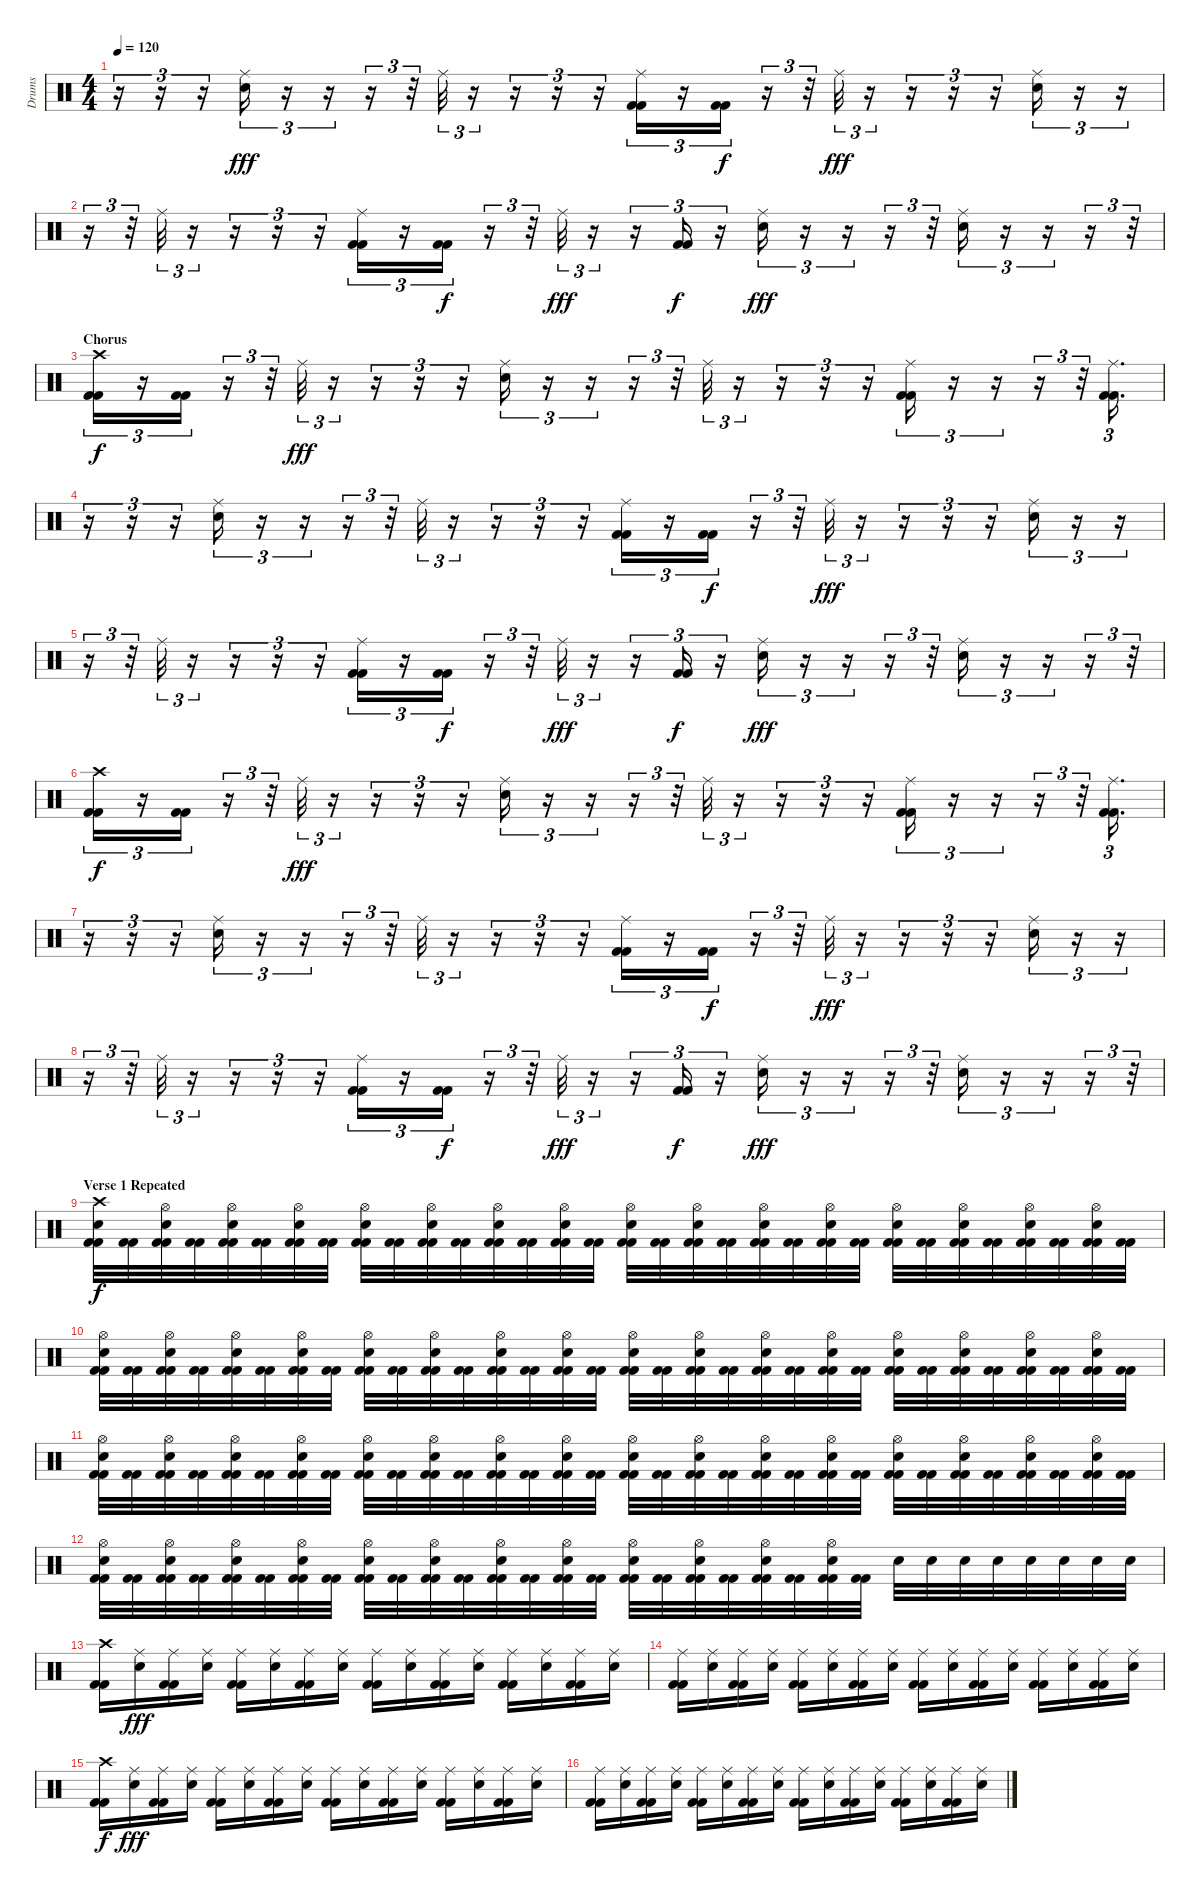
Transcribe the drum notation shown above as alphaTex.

\track ("Drums" "Drums") {instrument percussion}
\staff {score}
\articulation defaults
\ts (4 4)
\tempo 120
\clef neutral
\ks c
r.16{tu (3 2) dy fff} r.16{tu (3 2)} r.16{tu (3 2)} ("Electric Snare (hit)" "Ride (middle)").16{tu (3 2)} r.16{tu (3 2)} r.16{tu (3 2)} r.16{tu (3 2)} r.32{tu (3 2)} "Ride (middle)".32{tu (3 2)} r.16{tu (3 2)} r.16{tu (3 2)} r.16{tu (3 2)} r.16{tu (3 2)} ("Kick (hit) 2" "Kick (hit) 2" "Ride (middle)").16{tu (3 2)} r.16{tu (3 2)} ("Kick (hit) 2" "Kick (hit) 2").16{tu (3 2) dy f} r.16{tu (3 2)} r.32{tu (3 2)} "Ride (middle)".32{tu (3 2) dy fff} r.16{tu (3 2)} r.16{tu (3 2)} r.16{tu (3 2)} r.16{tu (3 2)} ("Electric Snare (hit)" "Ride (middle)").16{tu (3 2)} r.16{tu (3 2)} r.16{tu (3 2)} |
r.16{tu (3 2)} r.32{tu (3 2)} "Ride (middle)".32{tu (3 2)} r.16{tu (3 2)} r.16{tu (3 2)} r.16{tu (3 2)} r.16{tu (3 2)} ("Kick (hit) 2" "Kick (hit) 2" "Ride (middle)").16{tu (3 2)} r.16{tu (3 2)} ("Kick (hit) 2" "Kick (hit) 2").16{tu (3 2) dy f} r.16{tu (3 2)} r.32{tu (3 2)} "Ride (middle)".32{tu (3 2) dy fff} r.16{tu (3 2)} r.16{tu (3 2)} ("Kick (hit) 2" "Kick (hit) 2").16{tu (3 2) dy f} r.16{tu (3 2)} ("Electric Snare (hit)" "Ride (middle)").16{tu (3 2) dy fff} r.16{tu (3 2)} r.16{tu (3 2)} r.16{tu (3 2)} r.32{tu (3 2)} ("Electric Snare (hit)" "Ride (middle)").16{tu (3 2)} r.16{tu (3 2)} r.16{tu (3 2)} r.16{tu (3 2)} r.32{tu (3 2)} |
\section ("" "Chorus")
("Kick (hit) 2" "Kick (hit) 2" "Crash high (hit)").16{tu (3 2) dy f} r.16{tu (3 2)} ("Kick (hit) 2" "Kick (hit) 2").16{tu (3 2)} r.16{tu (3 2)} r.32{tu (3 2)} "Ride (middle)".32{tu (3 2) dy fff} r.16{tu (3 2)} r.16{tu (3 2)} r.16{tu (3 2)} r.16{tu (3 2)} ("Electric Snare (hit)" "Ride (middle)").16{tu (3 2)} r.16{tu (3 2)} r.16{tu (3 2)} r.16{tu (3 2)} r.32{tu (3 2)} "Ride (middle)".32{tu (3 2)} r.16{tu (3 2)} r.16{tu (3 2)} r.16{tu (3 2)} r.16{tu (3 2)} ("Kick (hit) 2" "Kick (hit) 2" "Ride (middle)").16{tu (3 2)} r.16{tu (3 2)} r.16{tu (3 2)} r.16{tu (3 2)} r.32{tu (3 2)} ("Kick (hit) 2" "Kick (hit) 2" "Ride (middle)").16{d tu (3 2)} |
r.16{tu (3 2)} r.16{tu (3 2)} r.16{tu (3 2)} ("Electric Snare (hit)" "Ride (middle)").16{tu (3 2)} r.16{tu (3 2)} r.16{tu (3 2)} r.16{tu (3 2)} r.32{tu (3 2)} "Ride (middle)".32{tu (3 2)} r.16{tu (3 2)} r.16{tu (3 2)} r.16{tu (3 2)} r.16{tu (3 2)} ("Kick (hit) 2" "Kick (hit) 2" "Ride (middle)").16{tu (3 2)} r.16{tu (3 2)} ("Kick (hit) 2" "Kick (hit) 2").16{tu (3 2) dy f} r.16{tu (3 2)} r.32{tu (3 2)} "Ride (middle)".32{tu (3 2) dy fff} r.16{tu (3 2)} r.16{tu (3 2)} r.16{tu (3 2)} r.16{tu (3 2)} ("Electric Snare (hit)" "Ride (middle)").16{tu (3 2)} r.16{tu (3 2)} r.16{tu (3 2)} |
r.16{tu (3 2)} r.32{tu (3 2)} "Ride (middle)".32{tu (3 2)} r.16{tu (3 2)} r.16{tu (3 2)} r.16{tu (3 2)} r.16{tu (3 2)} ("Kick (hit) 2" "Kick (hit) 2" "Ride (middle)").16{tu (3 2)} r.16{tu (3 2)} ("Kick (hit) 2" "Kick (hit) 2").16{tu (3 2) dy f} r.16{tu (3 2)} r.32{tu (3 2)} "Ride (middle)".32{tu (3 2) dy fff} r.16{tu (3 2)} r.16{tu (3 2)} ("Kick (hit) 2" "Kick (hit) 2").16{tu (3 2) dy f} r.16{tu (3 2)} ("Electric Snare (hit)" "Ride (middle)").16{tu (3 2) dy fff} r.16{tu (3 2)} r.16{tu (3 2)} r.16{tu (3 2)} r.32{tu (3 2)} ("Electric Snare (hit)" "Ride (middle)").16{tu (3 2)} r.16{tu (3 2)} r.16{tu (3 2)} r.16{tu (3 2)} r.32{tu (3 2)} |
("Kick (hit) 2" "Kick (hit) 2" "Crash high (hit)").16{tu (3 2) dy f} r.16{tu (3 2)} ("Kick (hit) 2" "Kick (hit) 2").16{tu (3 2)} r.16{tu (3 2)} r.32{tu (3 2)} "Ride (middle)".32{tu (3 2) dy fff} r.16{tu (3 2)} r.16{tu (3 2)} r.16{tu (3 2)} r.16{tu (3 2)} ("Electric Snare (hit)" "Ride (middle)").16{tu (3 2)} r.16{tu (3 2)} r.16{tu (3 2)} r.16{tu (3 2)} r.32{tu (3 2)} "Ride (middle)".32{tu (3 2)} r.16{tu (3 2)} r.16{tu (3 2)} r.16{tu (3 2)} r.16{tu (3 2)} ("Kick (hit) 2" "Kick (hit) 2" "Ride (middle)").16{tu (3 2)} r.16{tu (3 2)} r.16{tu (3 2)} r.16{tu (3 2)} r.32{tu (3 2)} ("Kick (hit) 2" "Kick (hit) 2" "Ride (middle)").16{d tu (3 2)} |
r.16{tu (3 2)} r.16{tu (3 2)} r.16{tu (3 2)} ("Electric Snare (hit)" "Ride (middle)").16{tu (3 2)} r.16{tu (3 2)} r.16{tu (3 2)} r.16{tu (3 2)} r.32{tu (3 2)} "Ride (middle)".32{tu (3 2)} r.16{tu (3 2)} r.16{tu (3 2)} r.16{tu (3 2)} r.16{tu (3 2)} ("Kick (hit) 2" "Kick (hit) 2" "Ride (middle)").16{tu (3 2)} r.16{tu (3 2)} ("Kick (hit) 2" "Kick (hit) 2").16{tu (3 2) dy f} r.16{tu (3 2)} r.32{tu (3 2)} "Ride (middle)".32{tu (3 2) dy fff} r.16{tu (3 2)} r.16{tu (3 2)} r.16{tu (3 2)} r.16{tu (3 2)} ("Electric Snare (hit)" "Ride (middle)").16{tu (3 2)} r.16{tu (3 2)} r.16{tu (3 2)} |
r.16{tu (3 2)} r.32{tu (3 2)} "Ride (middle)".32{tu (3 2)} r.16{tu (3 2)} r.16{tu (3 2)} r.16{tu (3 2)} r.16{tu (3 2)} ("Kick (hit) 2" "Kick (hit) 2" "Ride (middle)").16{tu (3 2)} r.16{tu (3 2)} ("Kick (hit) 2" "Kick (hit) 2").16{tu (3 2) dy f} r.16{tu (3 2)} r.32{tu (3 2)} "Ride (middle)".32{tu (3 2) dy fff} r.16{tu (3 2)} r.16{tu (3 2)} ("Kick (hit) 2" "Kick (hit) 2").16{tu (3 2) dy f} r.16{tu (3 2)} ("Electric Snare (hit)" "Ride (middle)").16{tu (3 2) dy fff} r.16{tu (3 2)} r.16{tu (3 2)} r.16{tu (3 2)} r.32{tu (3 2)} ("Electric Snare (hit)" "Ride (middle)").16{tu (3 2)} r.16{tu (3 2)} r.16{tu (3 2)} r.16{tu (3 2)} r.32{tu (3 2)} |
\section ("" "Verse 1 Repeated")
("Kick (hit) 2" "Kick (hit) 2" "Electric Snare (hit)" "Crash high (hit)").32{dy f} ("Kick (hit) 2" "Kick (hit) 2").32 ("Kick (hit) 2" "Kick (hit) 2" "Electric Snare (hit)" "Hi-Hat (open)").32 ("Kick (hit) 2" "Kick (hit) 2").32 ("Kick (hit) 2" "Kick (hit) 2" "Electric Snare (hit)" "Hi-Hat (open)").32 ("Kick (hit) 2" "Kick (hit) 2").32 ("Kick (hit) 2" "Kick (hit) 2" "Electric Snare (hit)" "Hi-Hat (open)").32 ("Kick (hit) 2" "Kick (hit) 2").32 ("Kick (hit) 2" "Kick (hit) 2" "Electric Snare (hit)" "Hi-Hat (open)").32 ("Kick (hit) 2" "Kick (hit) 2").32 ("Kick (hit) 2" "Kick (hit) 2" "Electric Snare (hit)" "Hi-Hat (open)").32 ("Kick (hit) 2" "Kick (hit) 2").32 ("Kick (hit) 2" "Kick (hit) 2" "Electric Snare (hit)" "Hi-Hat (open)").32 ("Kick (hit) 2" "Kick (hit) 2").32 ("Kick (hit) 2" "Kick (hit) 2" "Electric Snare (hit)" "Hi-Hat (open)").32 ("Kick (hit) 2" "Kick (hit) 2").32 ("Kick (hit) 2" "Kick (hit) 2" "Electric Snare (hit)" "Hi-Hat (open)").32 ("Kick (hit) 2" "Kick (hit) 2").32 ("Kick (hit) 2" "Kick (hit) 2" "Electric Snare (hit)" "Hi-Hat (open)").32 ("Kick (hit) 2" "Kick (hit) 2").32 ("Kick (hit) 2" "Kick (hit) 2" "Electric Snare (hit)" "Hi-Hat (open)").32 ("Kick (hit) 2" "Kick (hit) 2").32 ("Kick (hit) 2" "Kick (hit) 2" "Electric Snare (hit)" "Hi-Hat (open)").32 ("Kick (hit) 2" "Kick (hit) 2").32 ("Kick (hit) 2" "Kick (hit) 2" "Electric Snare (hit)" "Hi-Hat (open)").32 ("Kick (hit) 2" "Kick (hit) 2").32 ("Kick (hit) 2" "Kick (hit) 2" "Electric Snare (hit)" "Hi-Hat (open)").32 ("Kick (hit) 2" "Kick (hit) 2").32 ("Kick (hit) 2" "Kick (hit) 2" "Electric Snare (hit)" "Hi-Hat (open)").32 ("Kick (hit) 2" "Kick (hit) 2").32 ("Kick (hit) 2" "Kick (hit) 2" "Electric Snare (hit)" "Hi-Hat (open)").32 ("Kick (hit) 2" "Kick (hit) 2").32 |
("Kick (hit) 2" "Kick (hit) 2" "Electric Snare (hit)" "Hi-Hat (open)").32 ("Kick (hit) 2" "Kick (hit) 2").32 ("Kick (hit) 2" "Kick (hit) 2" "Electric Snare (hit)" "Hi-Hat (open)").32 ("Kick (hit) 2" "Kick (hit) 2").32 ("Kick (hit) 2" "Kick (hit) 2" "Electric Snare (hit)" "Hi-Hat (open)").32 ("Kick (hit) 2" "Kick (hit) 2").32 ("Kick (hit) 2" "Kick (hit) 2" "Electric Snare (hit)" "Hi-Hat (open)").32 ("Kick (hit) 2" "Kick (hit) 2").32 ("Kick (hit) 2" "Kick (hit) 2" "Electric Snare (hit)" "Hi-Hat (open)").32 ("Kick (hit) 2" "Kick (hit) 2").32 ("Kick (hit) 2" "Kick (hit) 2" "Electric Snare (hit)" "Hi-Hat (open)").32 ("Kick (hit) 2" "Kick (hit) 2").32 ("Kick (hit) 2" "Kick (hit) 2" "Electric Snare (hit)" "Hi-Hat (open)").32 ("Kick (hit) 2" "Kick (hit) 2").32 ("Kick (hit) 2" "Kick (hit) 2" "Electric Snare (hit)" "Hi-Hat (open)").32 ("Kick (hit) 2" "Kick (hit) 2").32 ("Kick (hit) 2" "Kick (hit) 2" "Electric Snare (hit)" "Hi-Hat (open)").32 ("Kick (hit) 2" "Kick (hit) 2").32 ("Kick (hit) 2" "Kick (hit) 2" "Electric Snare (hit)" "Hi-Hat (open)").32 ("Kick (hit) 2" "Kick (hit) 2").32 ("Kick (hit) 2" "Kick (hit) 2" "Electric Snare (hit)" "Hi-Hat (open)").32 ("Kick (hit) 2" "Kick (hit) 2").32 ("Kick (hit) 2" "Kick (hit) 2" "Electric Snare (hit)" "Hi-Hat (open)").32 ("Kick (hit) 2" "Kick (hit) 2").32 ("Kick (hit) 2" "Kick (hit) 2" "Electric Snare (hit)" "Hi-Hat (open)").32 ("Kick (hit) 2" "Kick (hit) 2").32 ("Kick (hit) 2" "Kick (hit) 2" "Electric Snare (hit)" "Hi-Hat (open)").32 ("Kick (hit) 2" "Kick (hit) 2").32 ("Kick (hit) 2" "Kick (hit) 2" "Electric Snare (hit)" "Hi-Hat (open)").32 ("Kick (hit) 2" "Kick (hit) 2").32 ("Kick (hit) 2" "Kick (hit) 2" "Electric Snare (hit)" "Hi-Hat (open)").32 ("Kick (hit) 2" "Kick (hit) 2").32 |
("Kick (hit) 2" "Kick (hit) 2" "Electric Snare (hit)" "Hi-Hat (open)").32 ("Kick (hit) 2" "Kick (hit) 2").32 ("Kick (hit) 2" "Kick (hit) 2" "Electric Snare (hit)" "Hi-Hat (open)").32 ("Kick (hit) 2" "Kick (hit) 2").32 ("Kick (hit) 2" "Kick (hit) 2" "Electric Snare (hit)" "Hi-Hat (open)").32 ("Kick (hit) 2" "Kick (hit) 2").32 ("Kick (hit) 2" "Kick (hit) 2" "Electric Snare (hit)" "Hi-Hat (open)").32 ("Kick (hit) 2" "Kick (hit) 2").32 ("Kick (hit) 2" "Kick (hit) 2" "Electric Snare (hit)" "Hi-Hat (open)").32 ("Kick (hit) 2" "Kick (hit) 2").32 ("Kick (hit) 2" "Kick (hit) 2" "Electric Snare (hit)" "Hi-Hat (open)").32 ("Kick (hit) 2" "Kick (hit) 2").32 ("Kick (hit) 2" "Kick (hit) 2" "Electric Snare (hit)" "Hi-Hat (open)").32 ("Kick (hit) 2" "Kick (hit) 2").32 ("Kick (hit) 2" "Kick (hit) 2" "Electric Snare (hit)" "Hi-Hat (open)").32 ("Kick (hit) 2" "Kick (hit) 2").32 ("Kick (hit) 2" "Kick (hit) 2" "Electric Snare (hit)" "Hi-Hat (open)").32 ("Kick (hit) 2" "Kick (hit) 2").32 ("Kick (hit) 2" "Kick (hit) 2" "Electric Snare (hit)" "Hi-Hat (open)").32 ("Kick (hit) 2" "Kick (hit) 2").32 ("Kick (hit) 2" "Kick (hit) 2" "Electric Snare (hit)" "Hi-Hat (open)").32 ("Kick (hit) 2" "Kick (hit) 2").32 ("Kick (hit) 2" "Kick (hit) 2" "Electric Snare (hit)" "Hi-Hat (open)").32 ("Kick (hit) 2" "Kick (hit) 2").32 ("Kick (hit) 2" "Kick (hit) 2" "Electric Snare (hit)" "Hi-Hat (open)").32 ("Kick (hit) 2" "Kick (hit) 2").32 ("Kick (hit) 2" "Kick (hit) 2" "Electric Snare (hit)" "Hi-Hat (open)").32 ("Kick (hit) 2" "Kick (hit) 2").32 ("Kick (hit) 2" "Kick (hit) 2" "Electric Snare (hit)" "Hi-Hat (open)").32 ("Kick (hit) 2" "Kick (hit) 2").32 ("Kick (hit) 2" "Kick (hit) 2" "Electric Snare (hit)" "Hi-Hat (open)").32 ("Kick (hit) 2" "Kick (hit) 2").32 |
("Kick (hit) 2" "Kick (hit) 2" "Electric Snare (hit)" "Hi-Hat (open)").32 ("Kick (hit) 2" "Kick (hit) 2").32 ("Kick (hit) 2" "Kick (hit) 2" "Electric Snare (hit)" "Hi-Hat (open)").32 ("Kick (hit) 2" "Kick (hit) 2").32 ("Kick (hit) 2" "Kick (hit) 2" "Electric Snare (hit)" "Hi-Hat (open)").32 ("Kick (hit) 2" "Kick (hit) 2").32 ("Kick (hit) 2" "Kick (hit) 2" "Electric Snare (hit)" "Hi-Hat (open)").32 ("Kick (hit) 2" "Kick (hit) 2").32 ("Kick (hit) 2" "Kick (hit) 2" "Electric Snare (hit)" "Hi-Hat (open)").32 ("Kick (hit) 2" "Kick (hit) 2").32 ("Kick (hit) 2" "Kick (hit) 2" "Electric Snare (hit)" "Hi-Hat (open)").32 ("Kick (hit) 2" "Kick (hit) 2").32 ("Kick (hit) 2" "Kick (hit) 2" "Electric Snare (hit)" "Hi-Hat (open)").32 ("Kick (hit) 2" "Kick (hit) 2").32 ("Kick (hit) 2" "Kick (hit) 2" "Electric Snare (hit)" "Hi-Hat (open)").32 ("Kick (hit) 2" "Kick (hit) 2").32 ("Kick (hit) 2" "Kick (hit) 2" "Electric Snare (hit)" "Hi-Hat (open)").32 ("Kick (hit) 2" "Kick (hit) 2").32 ("Kick (hit) 2" "Kick (hit) 2" "Electric Snare (hit)" "Hi-Hat (open)").32 ("Kick (hit) 2" "Kick (hit) 2").32 ("Kick (hit) 2" "Kick (hit) 2" "Electric Snare (hit)" "Hi-Hat (open)").32 ("Kick (hit) 2" "Kick (hit) 2").32 ("Kick (hit) 2" "Kick (hit) 2" "Electric Snare (hit)" "Hi-Hat (open)").32 ("Kick (hit) 2" "Kick (hit) 2").32 "Electric Snare (hit)".32 "Electric Snare (hit)".32 "Electric Snare (hit)".32 "Electric Snare (hit)".32 "Electric Snare (hit)".32 "Electric Snare (hit)".32 "Electric Snare (hit)".32 "Electric Snare (hit)".32 |
("Kick (hit) 2" "Kick (hit) 2" "Crash high (hit)").16 ("Electric Snare (hit)" "Ride (middle)").16{dy fff} ("Kick (hit) 2" "Kick (hit) 2" "Ride (middle)").16 ("Electric Snare (hit)" "Ride (middle)").16 ("Kick (hit) 2" "Kick (hit) 2" "Ride (middle)").16 ("Electric Snare (hit)" "Ride (middle)").16 ("Kick (hit) 2" "Kick (hit) 2" "Ride (middle)").16 ("Electric Snare (hit)" "Ride (middle)").16 ("Kick (hit) 2" "Kick (hit) 2" "Ride (middle)").16 ("Electric Snare (hit)" "Ride (middle)").16 ("Kick (hit) 2" "Kick (hit) 2" "Ride (middle)").16 ("Electric Snare (hit)" "Ride (middle)").16 ("Kick (hit) 2" "Kick (hit) 2" "Ride (middle)").16 ("Electric Snare (hit)" "Ride (middle)").16 ("Kick (hit) 2" "Kick (hit) 2" "Ride (middle)").16 ("Electric Snare (hit)" "Ride (middle)").16 |
("Kick (hit) 2" "Kick (hit) 2" "Ride (middle)").16 ("Electric Snare (hit)" "Ride (middle)").16 ("Kick (hit) 2" "Kick (hit) 2" "Ride (middle)").16 ("Electric Snare (hit)" "Ride (middle)").16 ("Kick (hit) 2" "Kick (hit) 2" "Ride (middle)").16 ("Electric Snare (hit)" "Ride (middle)").16 ("Kick (hit) 2" "Kick (hit) 2" "Ride (middle)").16 ("Electric Snare (hit)" "Ride (middle)").16 ("Kick (hit) 2" "Kick (hit) 2" "Ride (middle)").16 ("Electric Snare (hit)" "Ride (middle)").16 ("Kick (hit) 2" "Kick (hit) 2" "Ride (middle)").16 ("Electric Snare (hit)" "Ride (middle)").16 ("Kick (hit) 2" "Kick (hit) 2" "Ride (middle)").16 ("Electric Snare (hit)" "Ride (middle)").16 ("Kick (hit) 2" "Kick (hit) 2" "Ride (middle)").16 ("Electric Snare (hit)" "Ride (middle)").16 |
("Kick (hit) 2" "Kick (hit) 2" "Crash high (hit)").16{dy f} ("Electric Snare (hit)" "Ride (middle)").16{dy fff} ("Kick (hit) 2" "Kick (hit) 2" "Ride (middle)").16 ("Electric Snare (hit)" "Ride (middle)").16 ("Kick (hit) 2" "Kick (hit) 2" "Ride (middle)").16 ("Electric Snare (hit)" "Ride (middle)").16 ("Kick (hit) 2" "Kick (hit) 2" "Ride (middle)").16 ("Electric Snare (hit)" "Ride (middle)").16 ("Kick (hit) 2" "Kick (hit) 2" "Ride (middle)").16 ("Electric Snare (hit)" "Ride (middle)").16 ("Kick (hit) 2" "Kick (hit) 2" "Ride (middle)").16 ("Electric Snare (hit)" "Ride (middle)").16 ("Kick (hit) 2" "Kick (hit) 2" "Ride (middle)").16 ("Electric Snare (hit)" "Ride (middle)").16 ("Kick (hit) 2" "Kick (hit) 2" "Ride (middle)").16 ("Electric Snare (hit)" "Ride (middle)").16 |
("Kick (hit) 2" "Kick (hit) 2" "Ride (middle)").16 ("Electric Snare (hit)" "Ride (middle)").16 ("Kick (hit) 2" "Kick (hit) 2" "Ride (middle)").16 ("Electric Snare (hit)" "Ride (middle)").16 ("Kick (hit) 2" "Kick (hit) 2" "Ride (middle)").16 ("Electric Snare (hit)" "Ride (middle)").16 ("Kick (hit) 2" "Kick (hit) 2" "Ride (middle)").16 ("Electric Snare (hit)" "Ride (middle)").16 ("Kick (hit) 2" "Kick (hit) 2" "Ride (middle)").16 ("Electric Snare (hit)" "Ride (middle)").16 ("Kick (hit) 2" "Kick (hit) 2" "Ride (middle)").16 ("Electric Snare (hit)" "Ride (middle)").16 ("Kick (hit) 2" "Kick (hit) 2" "Ride (middle)").16 ("Electric Snare (hit)" "Ride (middle)").16 ("Kick (hit) 2" "Kick (hit) 2" "Ride (middle)").16 ("Electric Snare (hit)" "Ride (middle)").16
